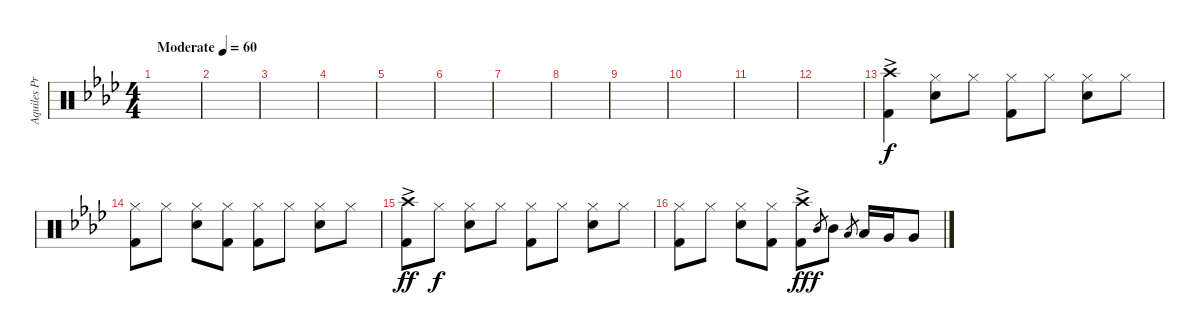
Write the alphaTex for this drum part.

\track ("Aquiles Priester" "Aquiles Pr") {instrument percussion}
\staff {score}
\articulation defaults
\ts (4 4)
\tempo (60 "Moderate")
\clef neutral
\ks ab
|
|
|
|
|
|
|
|
|
|
|
|
("Crash high (hit)"{ac} "Kick (hit) 2"{ac}).4 ("Hi-Hat (closed)" "Electric Snare (hit)").8{dy f} "Hi-Hat (closed)".8 ("Hi-Hat (closed)" "Kick (hit) 2").8 "Hi-Hat (closed)".8 ("Hi-Hat (closed)" "Electric Snare (hit)").8 "Hi-Hat (closed)".8 |
("Hi-Hat (closed)" "Kick (hit) 2").8 "Hi-Hat (closed)".8 ("Hi-Hat (closed)" "Electric Snare (hit)").8 ("Hi-Hat (closed)" "Kick (hit) 2").8 ("Hi-Hat (closed)" "Kick (hit) 2").8 "Hi-Hat (closed)".8 ("Hi-Hat (closed)" "Electric Snare (hit)").8 "Hi-Hat (closed)".8 |
("Crash high (hit)"{ac} "Kick (hit) 2"{ac}).8{dy ff} "Hi-Hat (closed)".8{dy f} ("Hi-Hat (closed)" "Electric Snare (hit)").8 "Hi-Hat (closed)".8 ("Hi-Hat (closed)" "Kick (hit) 2").8 "Hi-Hat (closed)".8 ("Hi-Hat (closed)" "Electric Snare (hit)").8 "Hi-Hat (closed)".8 |
("Hi-Hat (closed)" "Kick (hit) 2").8 "Hi-Hat (closed)".8 ("Hi-Hat (closed)" "Electric Snare (hit)").8 ("Hi-Hat (closed)" "Kick (hit) 2").8 ("Crash high (hit)"{ac} "Kick (hit) 2"{ac}).8{dy ff} "Mid Tom (hit)".8{gr dy f} "Mid Tom (hit)".8 "Low Tom (hit)".8{gr} "Low Tom (hit)".16 "Very Low Tom (hit)".16 "Very Low Tom (hit)".8
